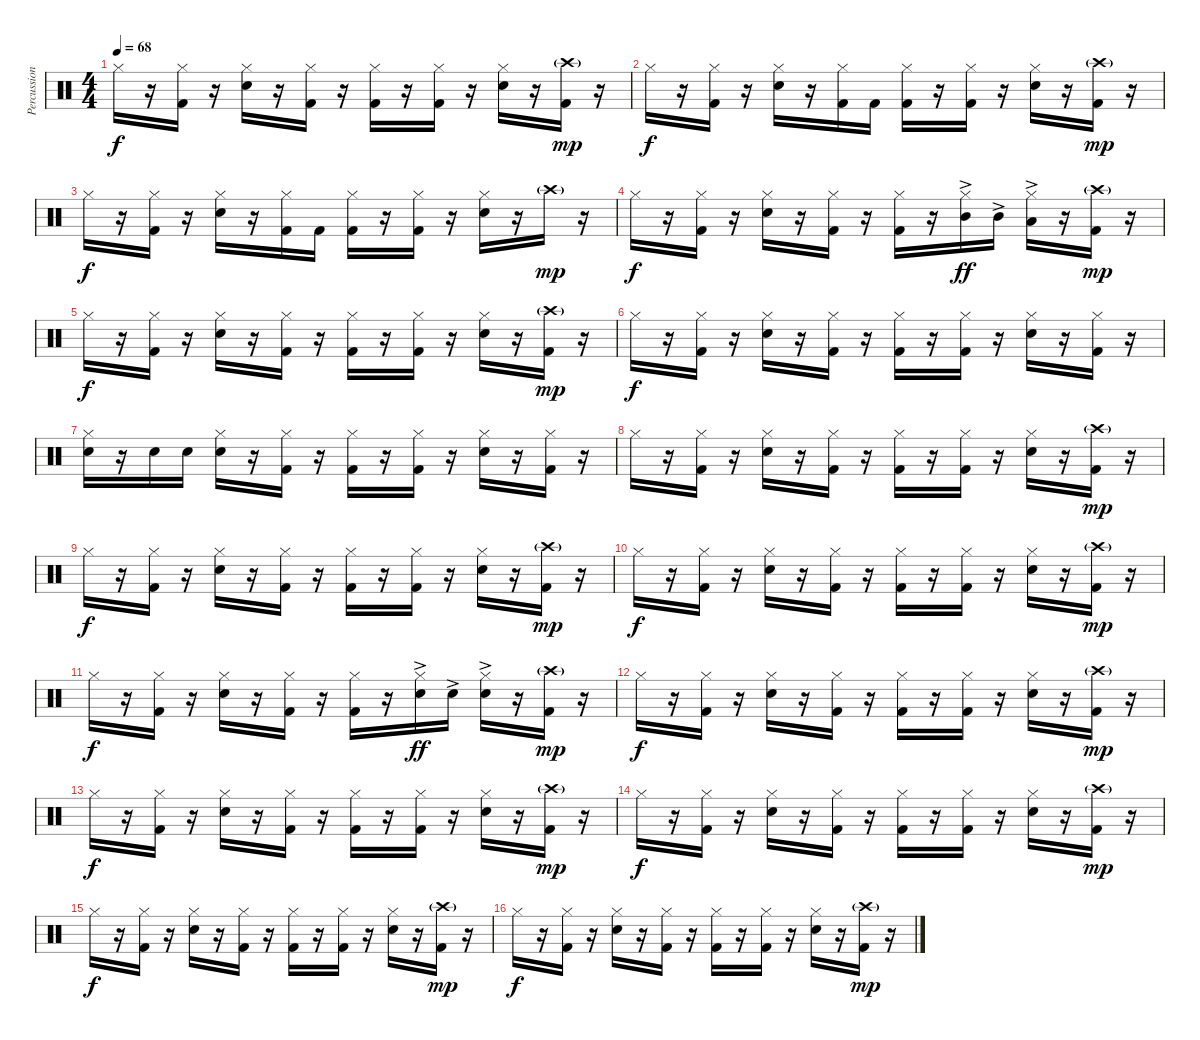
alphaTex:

\track ("Percussion" "Percussion") {instrument percussion}
\staff {score}
\articulation defaults
\ts (4 4)
\tempo 68
\clef neutral
\ks c "Hi-Hat (closed)".16{dy f}
r.16 ("Hi-Hat (closed)" "Kick (hit) 2").16 r.16 ("Hi-Hat (closed)" "Snare (hit) 2").16 r.16 ("Hi-Hat (closed)" "Kick (hit) 2").16 r.16 ("Hi-Hat (closed)" "Kick (hit) 2").16 r.16 ("Hi-Hat (closed)" "Kick (hit) 2").16 r.16 ("Hi-Hat (closed)" "Snare (hit) 2").16 r.16 ("Crash high (hit)"{g} "Kick (hit) 2").16{dy mp} r.16 |
"Hi-Hat (closed)".16{dy f} r.16 ("Hi-Hat (closed)" "Kick (hit) 2").16 r.16 ("Hi-Hat (closed)" "Snare (hit) 2").16 r.16 ("Hi-Hat (closed)" "Kick (hit) 2").16 "Kick (hit) 2".16 ("Hi-Hat (closed)" "Kick (hit) 2").16 r.16 ("Hi-Hat (closed)" "Kick (hit) 2").16 r.16 ("Hi-Hat (closed)" "Snare (hit) 2").16 r.16 ("Crash high (hit)"{g} "Kick (hit) 2").16{dy mp} r.16 |
"Hi-Hat (closed)".16{dy f} r.16 ("Hi-Hat (closed)" "Kick (hit) 2").16 r.16 ("Hi-Hat (closed)" "Snare (hit) 2").16 r.16 ("Hi-Hat (closed)" "Kick (hit) 2").16 "Kick (hit) 2".16 ("Hi-Hat (closed)" "Kick (hit) 2").16 r.16 ("Hi-Hat (closed)" "Kick (hit) 2").16 r.16 ("Hi-Hat (closed)" "Snare (hit) 2").16 r.16 "Crash high (hit)"{g}.16{dy mp} r.16 |
"Hi-Hat (closed)".16{dy f} r.16 ("Hi-Hat (closed)" "Kick (hit) 2").16 r.16 ("Hi-Hat (closed)" "Snare (hit) 2").16 r.16 ("Hi-Hat (closed)" "Kick (hit) 2").16 r.16 ("Hi-Hat (closed)" "Kick (hit) 2").16 r.16 ("Hi-Hat (closed)" "Mid Tom (hit)"{ac}).16{dy ff} "Mid Tom (hit)"{ac}.16 ("Hi-Hat (closed)" "Low Tom (hit)"{ac}).16 r.16 ("Crash high (hit)"{g} "Kick (hit) 2").16{dy mp} r.16 |
"Hi-Hat (closed)".16{dy f} r.16 ("Hi-Hat (closed)" "Kick (hit) 2").16 r.16 ("Hi-Hat (closed)" "Snare (hit) 2").16 r.16 ("Hi-Hat (closed)" "Kick (hit) 2").16 r.16 ("Hi-Hat (closed)" "Kick (hit) 2").16 r.16 ("Hi-Hat (closed)" "Kick (hit) 2").16 r.16 ("Hi-Hat (closed)" "Snare (hit) 2").16 r.16 ("Crash high (hit)"{g} "Kick (hit) 2").16{dy mp} r.16 |
"Hi-Hat (closed)".16{dy f} r.16 ("Hi-Hat (closed)" "Kick (hit) 2").16 r.16 ("Hi-Hat (closed)" "Snare (hit) 2").16 r.16 ("Hi-Hat (closed)" "Kick (hit) 2").16 r.16 ("Hi-Hat (closed)" "Kick (hit) 2").16 r.16 ("Hi-Hat (closed)" "Kick (hit) 2").16 r.16 ("Hi-Hat (closed)" "Snare (hit) 2").16 r.16 ("Hi-Hat (closed)" "Kick (hit) 2").16 r.16 |
("Hi-Hat (closed)" "Snare (hit) 2").16 r.16 "Snare (hit) 2".16 "Snare (hit) 2".16 ("Hi-Hat (closed)" "Snare (hit) 2").16 r.16 ("Hi-Hat (closed)" "Kick (hit) 2").16 r.16 ("Hi-Hat (closed)" "Kick (hit) 2").16 r.16 ("Hi-Hat (closed)" "Kick (hit) 2").16 r.16 ("Hi-Hat (closed)" "Snare (hit) 2").16 r.16 ("Hi-Hat (closed)" "Kick (hit) 2").16 r.16 |
"Hi-Hat (closed)".16 r.16 ("Hi-Hat (closed)" "Kick (hit) 2").16 r.16 ("Hi-Hat (closed)" "Snare (hit) 2").16 r.16 ("Hi-Hat (closed)" "Kick (hit) 2").16 r.16 ("Hi-Hat (closed)" "Kick (hit) 2").16 r.16 ("Hi-Hat (closed)" "Kick (hit) 2").16 r.16 ("Hi-Hat (closed)" "Snare (hit) 2").16 r.16 ("Crash high (hit)"{g} "Kick (hit) 2").16{dy mp} r.16 |
"Hi-Hat (closed)".16{dy f} r.16 ("Hi-Hat (closed)" "Kick (hit) 2").16 r.16 ("Hi-Hat (closed)" "Snare (hit) 2").16 r.16 ("Hi-Hat (closed)" "Kick (hit) 2").16 r.16 ("Hi-Hat (closed)" "Kick (hit) 2").16 r.16 ("Hi-Hat (closed)" "Kick (hit) 2").16 r.16 ("Hi-Hat (closed)" "Snare (hit) 2").16 r.16 ("Crash high (hit)"{g} "Kick (hit) 2").16{dy mp} r.16 |
"Hi-Hat (closed)".16{dy f} r.16 ("Hi-Hat (closed)" "Kick (hit) 2").16 r.16 ("Hi-Hat (closed)" "Snare (hit) 2").16 r.16 ("Hi-Hat (closed)" "Kick (hit) 2").16 r.16 ("Hi-Hat (closed)" "Kick (hit) 2").16 r.16 ("Hi-Hat (closed)" "Kick (hit) 2").16 r.16 ("Hi-Hat (closed)" "Snare (hit) 2").16 r.16 ("Crash high (hit)"{g} "Kick (hit) 2").16{dy mp} r.16 |
"Hi-Hat (closed)".16{dy f} r.16 ("Hi-Hat (closed)" "Kick (hit) 2").16 r.16 ("Hi-Hat (closed)" "Snare (hit) 2").16 r.16 ("Hi-Hat (closed)" "Kick (hit) 2").16 r.16 ("Hi-Hat (closed)" "Kick (hit) 2").16 r.16 ("Hi-Hat (closed)" "Snare (hit) 2"{ac}).16{dy ff} "Snare (hit) 2"{ac}.16 ("Hi-Hat (closed)" "Snare (hit) 2"{ac}).16 r.16 ("Crash high (hit)"{g} "Kick (hit) 2").16{dy mp} r.16 |
"Hi-Hat (closed)".16{dy f} r.16 ("Hi-Hat (closed)" "Kick (hit) 2").16 r.16 ("Hi-Hat (closed)" "Snare (hit) 2").16 r.16 ("Hi-Hat (closed)" "Kick (hit) 2").16 r.16 ("Hi-Hat (closed)" "Kick (hit) 2").16 r.16 ("Hi-Hat (closed)" "Kick (hit) 2").16 r.16 ("Hi-Hat (closed)" "Snare (hit) 2").16 r.16 ("Crash high (hit)"{g} "Kick (hit) 2").16{dy mp} r.16 |
"Hi-Hat (closed)".16{dy f} r.16 ("Hi-Hat (closed)" "Kick (hit) 2").16 r.16 ("Hi-Hat (closed)" "Snare (hit) 2").16 r.16 ("Hi-Hat (closed)" "Kick (hit) 2").16 r.16 ("Hi-Hat (closed)" "Kick (hit) 2").16 r.16 ("Hi-Hat (closed)" "Kick (hit) 2").16 r.16 ("Hi-Hat (closed)" "Snare (hit) 2").16 r.16 ("Crash high (hit)"{g} "Kick (hit) 2").16{dy mp} r.16 |
"Hi-Hat (closed)".16{dy f} r.16 ("Hi-Hat (closed)" "Kick (hit) 2").16 r.16 ("Hi-Hat (closed)" "Snare (hit) 2").16 r.16 ("Hi-Hat (closed)" "Kick (hit) 2").16 r.16 ("Hi-Hat (closed)" "Kick (hit) 2").16 r.16 ("Hi-Hat (closed)" "Kick (hit) 2").16 r.16 ("Hi-Hat (closed)" "Snare (hit) 2").16 r.16 ("Crash high (hit)"{g} "Kick (hit) 2").16{dy mp} r.16 |
"Hi-Hat (closed)".16{dy f} r.16 ("Hi-Hat (closed)" "Kick (hit) 2").16 r.16 ("Hi-Hat (closed)" "Snare (hit) 2").16 r.16 ("Hi-Hat (closed)" "Kick (hit) 2").16 r.16 ("Hi-Hat (closed)" "Kick (hit) 2").16 r.16 ("Hi-Hat (closed)" "Kick (hit) 2").16 r.16 ("Hi-Hat (closed)" "Snare (hit) 2").16 r.16 ("Crash high (hit)"{g} "Kick (hit) 2").16{dy mp} r.16 |
"Hi-Hat (closed)".16{dy f} r.16 ("Hi-Hat (closed)" "Kick (hit) 2").16 r.16 ("Hi-Hat (closed)" "Snare (hit) 2").16 r.16 ("Hi-Hat (closed)" "Kick (hit) 2").16 r.16 ("Hi-Hat (closed)" "Kick (hit) 2").16 r.16 ("Hi-Hat (closed)" "Kick (hit) 2").16 r.16 ("Hi-Hat (closed)" "Snare (hit) 2").16 r.16 ("Crash high (hit)"{g} "Kick (hit) 2").16{dy mp} r.16
